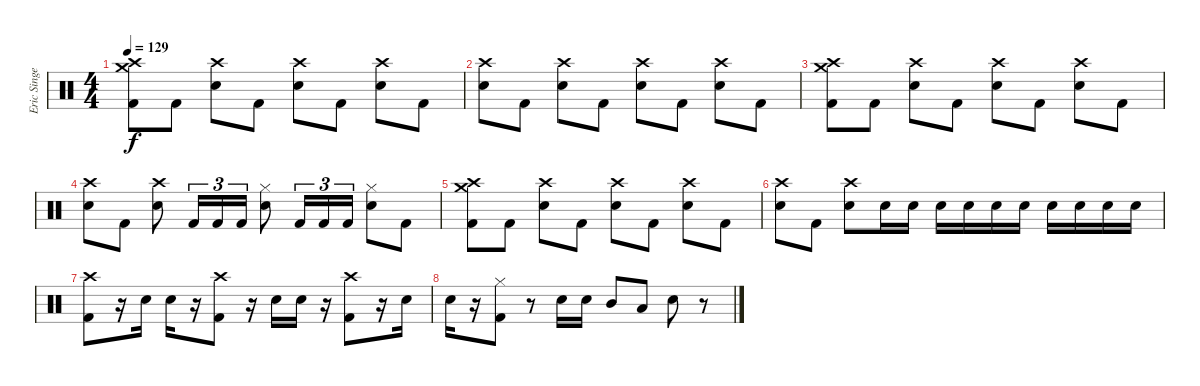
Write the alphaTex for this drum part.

\track ("Eric Singer" "Eric Singe") {instrument percussion}
\staff {score}
\articulation defaults
\ts (4 4)
\tempo 129
\clef neutral
\ks c
("Crash high (hit)" "Crash medium (hit)" "Kick (hit) 2").8{dy f} "Kick (hit) 2".8 ("Crash high (hit)" "Electric Snare (hit)").8 "Kick (hit) 2".8 ("Crash high (hit)" "Electric Snare (hit)").8 "Kick (hit) 2".8 ("Crash high (hit)" "Electric Snare (hit)").8 "Kick (hit) 2".8 |
("Crash high (hit)" "Electric Snare (hit)").8 "Kick (hit) 2".8 ("Crash high (hit)" "Electric Snare (hit)").8 "Kick (hit) 2".8 ("Crash high (hit)" "Electric Snare (hit)").8 "Kick (hit) 2".8 ("Crash high (hit)" "Electric Snare (hit)").8 "Kick (hit) 2".8 |
("Crash high (hit)" "Crash medium (hit)" "Kick (hit) 2").8 "Kick (hit) 2".8 ("Crash high (hit)" "Electric Snare (hit)").8 "Kick (hit) 2".8 ("Crash high (hit)" "Electric Snare (hit)").8 "Kick (hit) 2".8 ("Crash high (hit)" "Electric Snare (hit)").8 "Kick (hit) 2".8 |
("Crash high (hit)" "Electric Snare (hit)").8 "Kick (hit) 2".8 ("Crash high (hit)" "Electric Snare (hit)").8 "Kick (hit) 2".16{tu (3 2)} "Kick (hit) 2".16{tu (3 2)} "Kick (hit) 2".16{tu (3 2)} ("Hi-Hat (closed)" "Electric Snare (hit)").8 "Kick (hit) 2".16{tu (3 2)} "Kick (hit) 2".16{tu (3 2)} "Kick (hit) 2".16{tu (3 2)} ("Hi-Hat (closed)" "Electric Snare (hit)").8 "Kick (hit) 2".8 |
("Crash high (hit)" "Crash medium (hit)" "Kick (hit) 2").8 "Kick (hit) 2".8 ("Crash high (hit)" "Electric Snare (hit)").8 "Kick (hit) 2".8 ("Crash high (hit)" "Electric Snare (hit)").8 "Kick (hit) 2".8 ("Crash high (hit)" "Electric Snare (hit)").8 "Kick (hit) 2".8 |
("Crash high (hit)" "Electric Snare (hit)").8 "Kick (hit) 2".8 ("Crash high (hit)" "Electric Snare (hit)").8 "Electric Snare (hit)".16 "Electric Snare (hit)".16 "Electric Snare (hit)".16 "Electric Snare (hit)".16 "Electric Snare (hit)".16 "Electric Snare (hit)".16 "Electric Snare (hit)".16 "Electric Snare (hit)".16 "Electric Snare (hit)".16 "Electric Snare (hit)".16 |
("Crash high (hit)" "Kick (hit) 2").8 r.16 "Electric Snare (hit)".16 "Electric Snare (hit)".16 r.16 ("Crash high (hit)" "Kick (hit) 2").8 r.16 "Electric Snare (hit)".16 "Electric Snare (hit)".16 r.16 ("Crash high (hit)" "Kick (hit) 2").8 r.16 "Electric Snare (hit)".16 |
"Electric Snare (hit)".16 r.16 ("Hi-Hat (closed)" "Kick (hit) 2").8 r.8 "Electric Snare (hit)".16 "Electric Snare (hit)".16 "Mid Tom (hit)".8 "Low Tom (hit)".8 "Electric Snare (hit)".8 r.8
